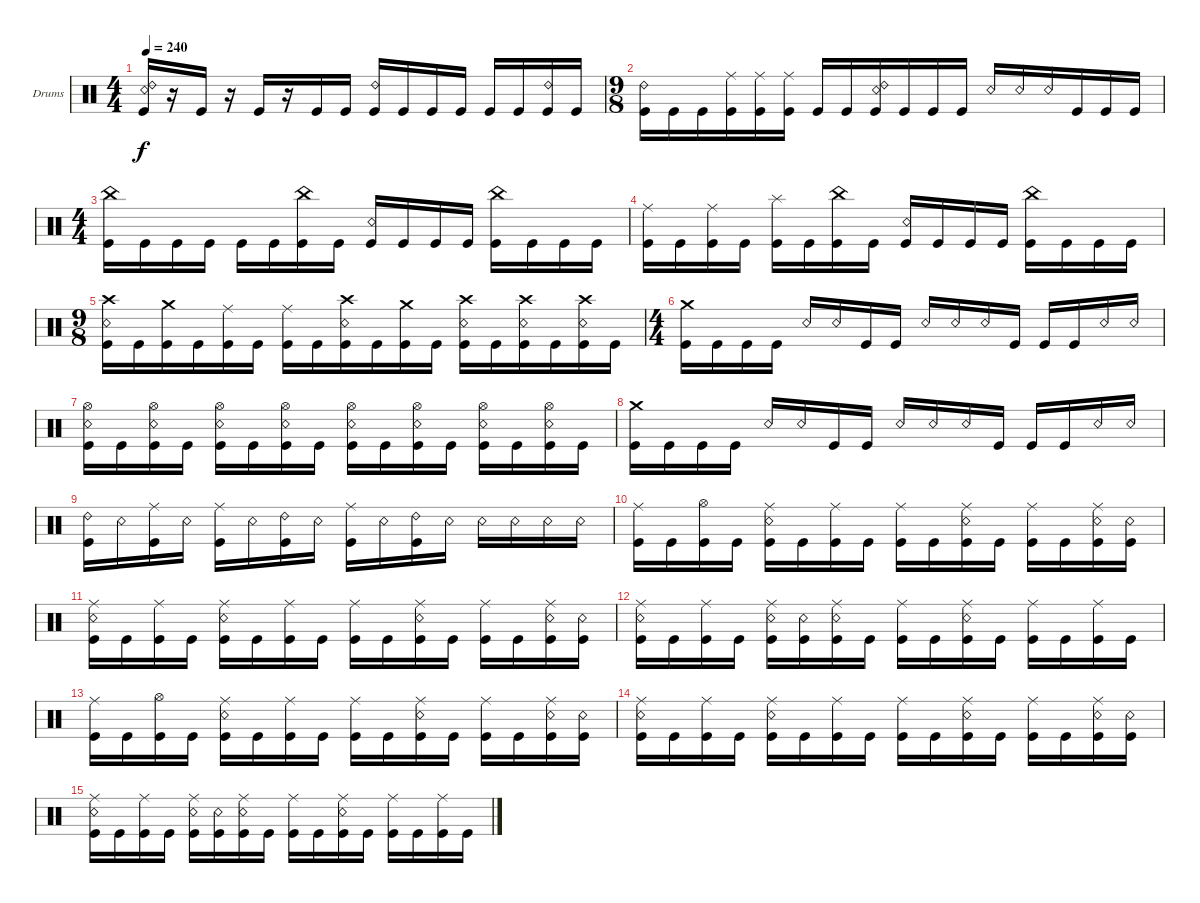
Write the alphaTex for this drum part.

\bracketExtendMode groupsimilarinstruments
\firstSystemTrackNameOrientation horizontal
\otherSystemsTrackNameOrientation horizontal
\track ("Drumkit" "Drums") {instrument percussion}
\staff {score}
\articulation defaults
\ts (4 4)
\tempo 240
\clef neutral
\ks c
("Ride (bell) 2" "Kick (hit)" "Snare (rim shot)").16{dy f} r.16 "Kick (hit)".16 r.16 "Kick (hit)".16 r.16 "Kick (hit)".16 "Kick (hit)".16 ("Ride (bell) 2" "Kick (hit)").16 "Kick (hit)".16 "Kick (hit)".16 "Kick (hit)".16 "Kick (hit)".16 "Kick (hit)".16 ("Kick (hit)" "Ride (bell) 2").16 "Kick (hit)".16 |
\ts (9 8)
("Ride (bell) 2" "Kick (hit)").16 "Kick (hit)".16 "Kick (hit)".16 ("Ride (middle)" "Kick (hit)").16 ("Kick (hit)" "Ride (middle)").16 ("Ride (middle)" "Kick (hit)").16 "Kick (hit)".16 "Kick (hit)".16 ("Ride (bell) 2" "Kick (hit)" "Snare (rim shot)").16 "Kick (hit)".16 "Kick (hit)".16 "Kick (hit)".16 "Snare (rim shot)".16 "Snare (rim shot)".16 "Snare (rim shot)".16 "Kick (hit)".16 "Kick (hit)".16 "Kick (hit)".16 |
\ts (4 4)
("Kick (hit)" "China (hit)").16 "Kick (hit)".16 "Kick (hit)".16 "Kick (hit)".16 "Kick (hit)".16 "Kick (hit)".16 ("Kick (hit)" "China (hit)").16 "Kick (hit)".16 ("Kick (hit)" "Snare (rim shot)").16 "Kick (hit)".16 "Kick (hit)".16 "Kick (hit)".16 ("Kick (hit)" "China (hit)").16 "Kick (hit)".16 "Kick (hit)".16 "Kick (hit)".16 |
("Kick (hit)" "Ride (middle)").16 "Kick (hit)".16 ("Kick (hit)" "Ride (middle)").16 "Kick (hit)".16 ("Kick (hit)" "Splash (hit)").16 "Kick (hit)".16 ("Kick (hit)" "China (hit)").16 "Kick (hit)".16 ("Kick (hit)" "Snare (rim shot)").16 "Kick (hit)".16 "Kick (hit)".16 "Kick (hit)".16 ("Kick (hit)" "China (hit)").16 "Kick (hit)".16 "Kick (hit)".16 "Kick (hit)".16 |
\ts (9 8)
("Kick (hit)" "Crash high (hit)" "Snare (rim shot)").16 "Kick (hit)".16 ("Kick (hit)" "Crash medium (hit)").16 "Kick (hit)".16 ("Kick (hit)" "Ride (middle)").16 "Kick (hit)".16 ("Kick (hit)" "Ride (middle)").16 "Kick (hit)".16 ("Kick (hit)" "Crash high (hit)" "Snare (rim shot)").16 "Kick (hit)".16 ("Kick (hit)" "Crash medium (hit)").16 "Kick (hit)".16 ("Kick (hit)" "Crash high (hit)" "Snare (rim shot)").16 "Kick (hit)".16 ("Kick (hit)" "Crash high (hit)" "Snare (rim shot)").16 "Kick (hit)".16 ("Kick (hit)" "Crash high (hit)" "Snare (rim shot)").16 "Kick (hit)".16 |
\ts (4 4)
("Crash medium (hit)" "Kick (hit)").16 "Kick (hit)".16 "Kick (hit)".16 "Kick (hit)".16 "Snare (rim shot)".16 "Snare (rim shot)".16 "Kick (hit)".16 "Kick (hit)".16 "Snare (rim shot)".16 "Snare (rim shot)".16 "Snare (rim shot)".16 "Kick (hit)".16 "Kick (hit)".16 "Kick (hit)".16 "Snare (rim shot)".16 "Snare (rim shot)".16 |
("Snare (rim shot)" "Hi-Hat (open)" "Kick (hit)").16 "Kick (hit)".16 ("Snare (rim shot)" "Hi-Hat (open)" "Kick (hit)").16 "Kick (hit)".16 ("Snare (rim shot)" "Hi-Hat (open)" "Kick (hit)").16 "Kick (hit)".16 ("Snare (rim shot)" "Hi-Hat (open)" "Kick (hit)").16 "Kick (hit)".16 ("Snare (rim shot)" "Hi-Hat (open)" "Kick (hit)").16 "Kick (hit)".16 ("Snare (rim shot)" "Hi-Hat (open)" "Kick (hit)").16 "Kick (hit)".16 ("Snare (rim shot)" "Hi-Hat (open)" "Kick (hit)").16 "Kick (hit)".16 ("Snare (rim shot)" "Hi-Hat (open)" "Kick (hit)").16 "Kick (hit)".16 |
("Crash medium (hit)" "Kick (hit)").16 "Kick (hit)".16 "Kick (hit)".16 "Kick (hit)".16 "Snare (rim shot)".16 "Snare (rim shot)".16 "Kick (hit)".16 "Kick (hit)".16 "Snare (rim shot)".16 "Snare (rim shot)".16 "Snare (rim shot)".16 "Kick (hit)".16 "Kick (hit)".16 "Kick (hit)".16 "Snare (rim shot)".16 "Snare (rim shot)".16 |
("Ride (bell) 2" "Kick (hit)").16 "Snare (rim shot)".16 ("Ride (middle)" "Kick (hit)").16 "Snare (rim shot)".16 ("Ride (middle)" "Kick (hit)").16 "Snare (rim shot)".16 ("Ride (bell) 2" "Kick (hit)").16 "Snare (rim shot)".16 ("Ride (middle)" "Kick (hit)").16 "Snare (rim shot)".16 ("Ride (bell) 2" "Kick (hit)").16 "Snare (rim shot)".16 "Snare (rim shot)".16 "Snare (rim shot)".16 "Snare (rim shot)".16 "Snare (rim shot)".16 |
("Ride (middle)" "Kick (hit)").16 "Kick (hit)".16 ("Kick (hit)" "Hi-Hat (open)").16 "Kick (hit)".16 ("Ride (middle)" "Snare (rim shot)" "Kick (hit)").16 "Kick (hit)".16 ("Kick (hit)" "Ride (middle)").16 "Kick (hit)".16 ("Ride (middle)" "Kick (hit)").16 "Kick (hit)".16 ("Snare (rim shot)" "Kick (hit)" "Ride (middle)").16 "Kick (hit)".16 ("Ride (middle)" "Kick (hit)").16 "Kick (hit)".16 ("Snare (rim shot)" "Kick (hit)" "Ride (middle)").16 ("Snare (rim shot)" "Kick (hit)").16 |
("Ride (middle)" "Snare (rim shot)" "Kick (hit)").16 "Kick (hit)".16 ("Kick (hit)" "Ride (middle)").16 "Kick (hit)".16 ("Ride (middle)" "Snare (rim shot)" "Kick (hit)").16 "Kick (hit)".16 ("Kick (hit)" "Ride (middle)").16 "Kick (hit)".16 ("Ride (middle)" "Kick (hit)").16 "Kick (hit)".16 ("Snare (rim shot)" "Kick (hit)" "Ride (middle)").16 "Kick (hit)".16 ("Ride (middle)" "Kick (hit)").16 "Kick (hit)".16 ("Snare (rim shot)" "Kick (hit)" "Ride (middle)").16 ("Snare (rim shot)" "Kick (hit)").16 |
("Ride (middle)" "Snare (rim shot)" "Kick (hit)").16 "Kick (hit)".16 ("Kick (hit)" "Ride (middle)").16 "Kick (hit)".16 ("Ride (middle)" "Snare (rim shot)" "Kick (hit)").16 ("Snare (rim shot)" "Kick (hit)").16 ("Snare (rim shot)" "Kick (hit)" "Ride (middle)").16 "Kick (hit)".16 ("Ride (middle)" "Kick (hit)").16 "Kick (hit)".16 ("Snare (rim shot)" "Kick (hit)" "Ride (middle)").16 "Kick (hit)".16 ("Ride (middle)" "Kick (hit)").16 "Kick (hit)".16 ("Kick (hit)" "Ride (middle)").16 "Kick (hit)".16 |
("Ride (middle)" "Kick (hit)").16 "Kick (hit)".16 ("Kick (hit)" "Hi-Hat (open)").16 "Kick (hit)".16 ("Ride (middle)" "Snare (rim shot)" "Kick (hit)").16 "Kick (hit)".16 ("Kick (hit)" "Ride (middle)").16 "Kick (hit)".16 ("Ride (middle)" "Kick (hit)").16 "Kick (hit)".16 ("Snare (rim shot)" "Kick (hit)" "Ride (middle)").16 "Kick (hit)".16 ("Ride (middle)" "Kick (hit)").16 "Kick (hit)".16 ("Snare (rim shot)" "Kick (hit)" "Ride (middle)").16 ("Snare (rim shot)" "Kick (hit)").16 |
("Ride (middle)" "Snare (rim shot)" "Kick (hit)").16 "Kick (hit)".16 ("Kick (hit)" "Ride (middle)").16 "Kick (hit)".16 ("Ride (middle)" "Snare (rim shot)" "Kick (hit)").16 "Kick (hit)".16 ("Kick (hit)" "Ride (middle)").16 "Kick (hit)".16 ("Ride (middle)" "Kick (hit)").16 "Kick (hit)".16 ("Snare (rim shot)" "Kick (hit)" "Ride (middle)").16 "Kick (hit)".16 ("Ride (middle)" "Kick (hit)").16 "Kick (hit)".16 ("Snare (rim shot)" "Kick (hit)" "Ride (middle)").16 ("Snare (rim shot)" "Kick (hit)").16 |
("Ride (middle)" "Snare (rim shot)" "Kick (hit)").16 "Kick (hit)".16 ("Kick (hit)" "Ride (middle)").16 "Kick (hit)".16 ("Ride (middle)" "Snare (rim shot)" "Kick (hit)").16 ("Snare (rim shot)" "Kick (hit)").16 ("Snare (rim shot)" "Kick (hit)" "Ride (middle)").16 "Kick (hit)".16 ("Ride (middle)" "Kick (hit)").16 "Kick (hit)".16 ("Snare (rim shot)" "Kick (hit)" "Ride (middle)").16 "Kick (hit)".16 ("Ride (middle)" "Kick (hit)").16 "Kick (hit)".16 ("Kick (hit)" "Ride (middle)").16 "Kick (hit)".16
